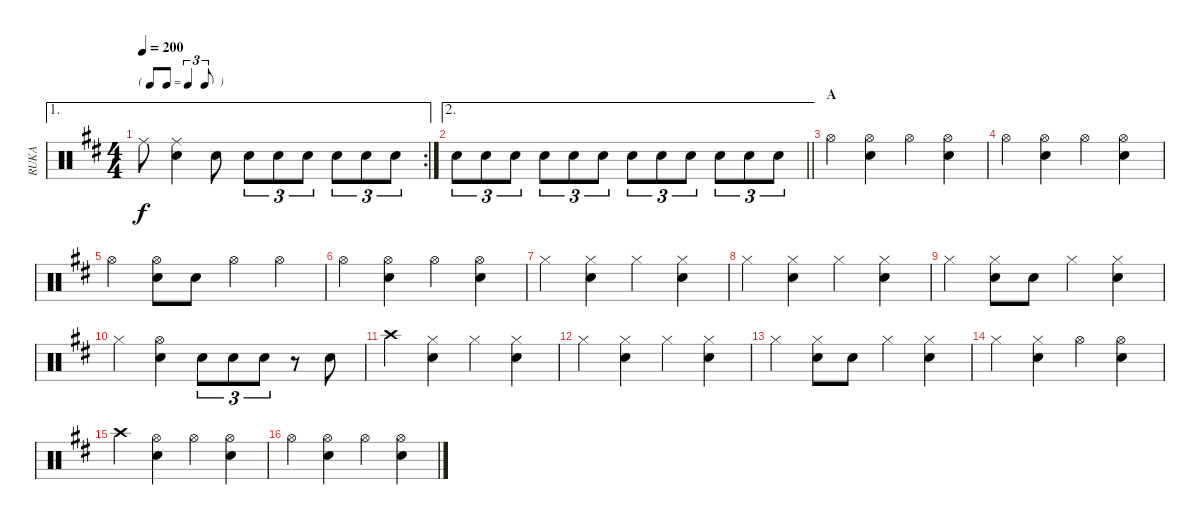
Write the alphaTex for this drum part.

\track ("RUKA" "RUKA") {instrument percussion}
\staff {score}
\articulation defaults
\ae 1
\rc 2
\ts (4 4)
\tf triplet8th
\tempo 200
\clef neutral
\ks d "Ride (middle)".8{dy f}
("Ride (middle)" "Snare (hit) 2").4 "Snare (hit) 2".8 "Snare (hit) 2".8{tu (3 2)} "Snare (hit) 2".8{tu (3 2)} "Snare (hit) 2".8{tu (3 2)} "Snare (hit) 2".8{tu (3 2)} "Snare (hit) 2".8{tu (3 2)} "Snare (hit) 2".8{tu (3 2)} |
\ae 2
\barLineRight lightlight "Snare (hit) 2".8{tu (3 2)} "Snare (hit) 2".8{tu (3 2)} "Snare (hit) 2".8{tu (3 2)} "Snare (hit) 2".8{tu (3 2)} "Snare (hit) 2".8{tu (3 2)} "Snare (hit) 2".8{tu (3 2)} "Snare (hit) 2".8{tu (3 2)} "Snare (hit) 2".8{tu (3 2)} "Snare (hit) 2".8{tu (3 2)} "Snare (hit) 2".8{tu (3 2)} "Snare (hit) 2".8{tu (3 2)} "Snare (hit) 2".8{tu (3 2)}
|
\section ("" "A")
"Hi-Hat (open)".4 ("Hi-Hat (open)" "Snare (hit) 2").4 "Hi-Hat (open)".4 ("Hi-Hat (open)" "Snare (hit) 2").4 |
"Hi-Hat (open)".4 ("Hi-Hat (open)" "Snare (hit) 2").4 "Hi-Hat (open)".4 ("Hi-Hat (open)" "Snare (hit) 2").4 |
"Hi-Hat (open)".4 ("Hi-Hat (open)" "Snare (hit) 2").8 "Snare (hit) 2".8 "Hi-Hat (open)".4 "Hi-Hat (open)".4 |
"Hi-Hat (open)".4 ("Hi-Hat (open)" "Snare (hit) 2").4 "Hi-Hat (open)".4 ("Hi-Hat (open)" "Snare (hit) 2").4 |
"Hi-Hat (closed)".4 ("Hi-Hat (closed)" "Snare (hit) 2").4 "Hi-Hat (closed)".4 ("Hi-Hat (closed)" "Snare (hit) 2").4 |
"Hi-Hat (closed)".4 ("Hi-Hat (closed)" "Snare (hit) 2").4 "Hi-Hat (closed)".4 ("Hi-Hat (closed)" "Snare (hit) 2").4 |
"Hi-Hat (closed)".4 ("Hi-Hat (closed)" "Snare (hit) 2").8 "Snare (hit) 2".8 "Hi-Hat (closed)".4 ("Hi-Hat (closed)" "Snare (hit) 2").4 |
"Hi-Hat (closed)".4 ("Hi-Hat (open)" "Snare (hit) 2").4 "Snare (hit) 2".8{tu (3 2)} "Snare (hit) 2".8{tu (3 2)} "Snare (hit) 2".8{tu (3 2)} r.8 "Snare (hit) 2".8 |
"Crash high (hit)".4 ("Hi-Hat (closed)" "Snare (hit) 2").4 "Hi-Hat (closed)".4 ("Hi-Hat (closed)" "Snare (hit) 2").4 |
"Hi-Hat (closed)".4 ("Hi-Hat (closed)" "Snare (hit) 2").4 "Hi-Hat (closed)".4 ("Hi-Hat (closed)" "Snare (hit) 2").4 |
"Hi-Hat (closed)".4 ("Hi-Hat (closed)" "Snare (hit) 2").8 "Snare (hit) 2".8 "Hi-Hat (closed)".4 ("Hi-Hat (closed)" "Snare (hit) 2").4 |
"Hi-Hat (closed)".4 ("Hi-Hat (closed)" "Snare (hit) 2").4 "Hi-Hat (open)".4 ("Hi-Hat (open)" "Snare (hit) 2").4 |
"Crash high (hit)".4 ("Hi-Hat (open)" "Snare (hit) 2").4 "Hi-Hat (open)".4 ("Hi-Hat (open)" "Snare (hit) 2").4 |
"Hi-Hat (open)".4 ("Hi-Hat (open)" "Snare (hit) 2").4 "Hi-Hat (open)".4 ("Hi-Hat (open)" "Snare (hit) 2").4
